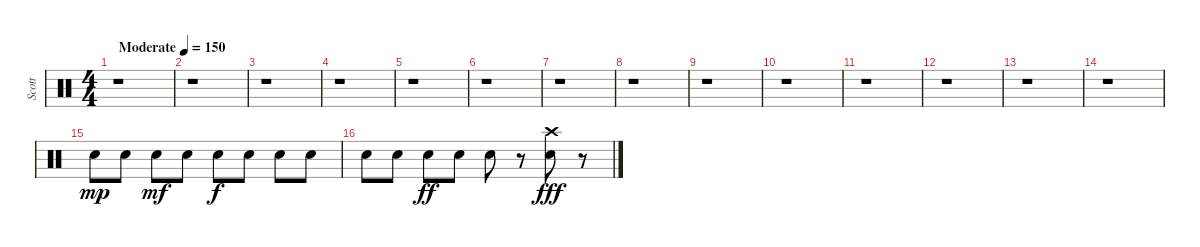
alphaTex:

\track ("Scott" "Scott") {solo instrument percussion}
\staff {score}
\articulation defaults
\ts (4 4)
\tempo (150 "Moderate")
\clef neutral
\ks c
r.1{dy mp} |
r.1 |
r.1 |
r.1 |
r.1 |
r.1 |
r.1 |
r.1 |
r.1 |
r.1 |
r.1 |
r.1 |
r.1 |
r.1 |
"Electric Snare (hit)".8 "Electric Snare (hit)".8 "Electric Snare (hit)".8{dy mf} "Electric Snare (hit)".8 "Electric Snare (hit)".8{dy f} "Electric Snare (hit)".8 "Electric Snare (hit)".8 "Electric Snare (hit)".8 |
"Electric Snare (hit)".8 "Electric Snare (hit)".8 "Electric Snare (hit)".8{dy ff} "Electric Snare (hit)".8 "Electric Snare (hit)".8 r.8 ("Electric Snare (hit)" "Crash high (hit)").8{dy fff} r.8
